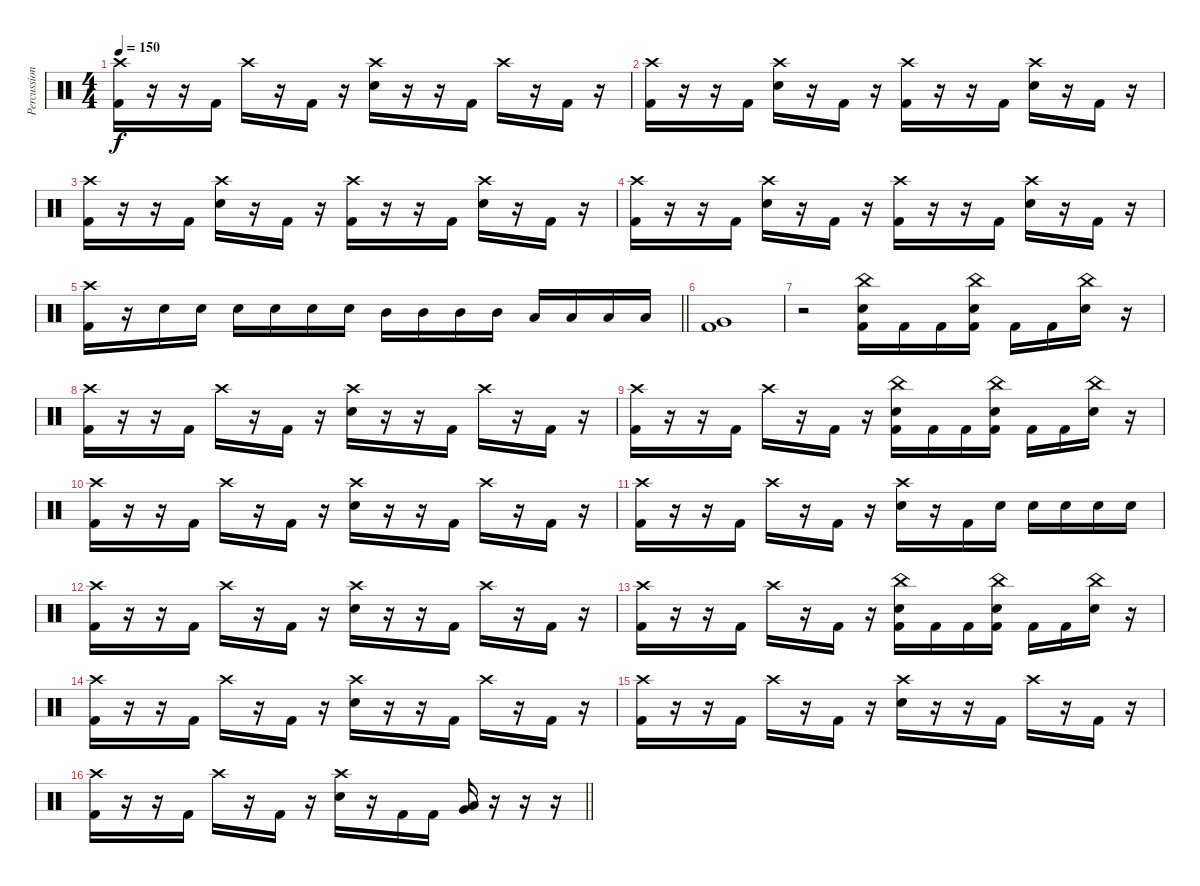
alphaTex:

\track ("Percussion" "Percussion") {instrument percussion}
\staff {score}
\articulation defaults
\ts (4 4)
\tempo 150
\clef neutral
\ks c
("Crash high (hit)" "Kick (hit) 2").16{dy f} r.16 r.16 "Kick (hit) 2".16 "Crash high (hit)".16 r.16 "Kick (hit) 2".16 r.16 ("Crash high (hit)" "Snare (hit) 2").16 r.16 r.16 "Kick (hit) 2".16 "Crash high (hit)".16 r.16 "Kick (hit) 2".16 r.16 |
("Crash high (hit)" "Kick (hit) 2").16 r.16 r.16 "Kick (hit) 2".16 ("Crash high (hit)" "Snare (hit) 2").16 r.16 "Kick (hit) 2".16 r.16 ("Crash high (hit)" "Kick (hit) 2").16 r.16 r.16 "Kick (hit) 2".16 ("Crash high (hit)" "Snare (hit) 2").16 r.16 "Kick (hit) 2".16 r.16 |
("Crash high (hit)" "Kick (hit) 2").16 r.16 r.16 "Kick (hit) 2".16 ("Crash high (hit)" "Snare (hit) 2").16 r.16 "Kick (hit) 2".16 r.16 ("Crash high (hit)" "Kick (hit) 2").16 r.16 r.16 "Kick (hit) 2".16 ("Crash high (hit)" "Snare (hit) 2").16 r.16 "Kick (hit) 2".16 r.16 |
("Crash high (hit)" "Kick (hit) 2").16 r.16 r.16 "Kick (hit) 2".16 ("Crash high (hit)" "Snare (hit) 2").16 r.16 "Kick (hit) 2".16 r.16 ("Crash high (hit)" "Kick (hit) 2").16 r.16 r.16 "Kick (hit) 2".16 ("Crash high (hit)" "Snare (hit) 2").16 r.16 "Kick (hit) 2".16 r.16 |
\barLineRight lightlight
("Crash high (hit)" "Kick (hit) 2").16 r.16 "Snare (hit) 2".16 "Snare (hit) 2".16 "Snare (hit) 2".16 "Snare (hit) 2".16 "Snare (hit) 2".16 "Snare (hit) 2".16 "Mid Tom (hit)".16 "Mid Tom (hit)".16 "Mid Tom (hit)".16 "Mid Tom (hit)".16 "Low Tom (hit)".16 "Low Tom (hit)".16 "Low Tom (hit)".16 "Low Tom (hit)".16 |
\section ("" "")
("Very Low Tom (hit)" "Kick (hit) 2").1 |
r.2 ("China (hit)" "Snare (hit) 2" "Kick (hit) 2").16 "Kick (hit) 2".16 "Kick (hit) 2".16 ("China (hit)" "Snare (hit) 2" "Kick (hit) 2").16 "Kick (hit) 2".16 "Kick (hit) 2".16 ("China (hit)" "Snare (hit) 2").16 r.16 |
("Crash high (hit)" "Kick (hit) 2").16 r.16 r.16 "Kick (hit) 2".16 "Crash high (hit)".16 r.16 "Kick (hit) 2".16 r.16 ("Crash high (hit)" "Snare (hit) 2").16 r.16 r.16 "Kick (hit) 2".16 "Crash high (hit)".16 r.16 "Kick (hit) 2".16 r.16 |
("Crash high (hit)" "Kick (hit) 2").16 r.16 r.16 "Kick (hit) 2".16 "Crash high (hit)".16 r.16 "Kick (hit) 2".16 r.16 ("China (hit)" "Snare (hit) 2" "Kick (hit) 2").16 "Kick (hit) 2".16 "Kick (hit) 2".16 ("China (hit)" "Snare (hit) 2" "Kick (hit) 2").16 "Kick (hit) 2".16 "Kick (hit) 2".16 ("China (hit)" "Snare (hit) 2").16 r.16 |
("Crash high (hit)" "Kick (hit) 2").16 r.16 r.16 "Kick (hit) 2".16 "Crash high (hit)".16 r.16 "Kick (hit) 2".16 r.16 ("Crash high (hit)" "Snare (hit) 2").16 r.16 r.16 "Kick (hit) 2".16 "Crash high (hit)".16 r.16 "Kick (hit) 2".16 r.16 |
("Crash high (hit)" "Kick (hit) 2").16 r.16 r.16 "Kick (hit) 2".16 "Crash high (hit)".16 r.16 "Kick (hit) 2".16 r.16 ("Crash high (hit)" "Snare (hit) 2").16 r.16 "Kick (hit) 2".16 "Snare (hit) 2".16 "Snare (hit) 2".16 "Snare (hit) 2".16 "Snare (hit) 2".16 "Snare (hit) 2".16 |
("Crash high (hit)" "Kick (hit) 2").16 r.16 r.16 "Kick (hit) 2".16 "Crash high (hit)".16 r.16 "Kick (hit) 2".16 r.16 ("Crash high (hit)" "Snare (hit) 2").16 r.16 r.16 "Kick (hit) 2".16 "Crash high (hit)".16 r.16 "Kick (hit) 2".16 r.16 |
("Crash high (hit)" "Kick (hit) 2").16 r.16 r.16 "Kick (hit) 2".16 "Crash high (hit)".16 r.16 "Kick (hit) 2".16 r.16 ("China (hit)" "Snare (hit) 2" "Kick (hit) 2").16 "Kick (hit) 2".16 "Kick (hit) 2".16 ("China (hit)" "Snare (hit) 2" "Kick (hit) 2").16 "Kick (hit) 2".16 "Kick (hit) 2".16 ("China (hit)" "Snare (hit) 2").16 r.16 |
("Crash high (hit)" "Kick (hit) 2").16 r.16 r.16 "Kick (hit) 2".16 "Crash high (hit)".16 r.16 "Kick (hit) 2".16 r.16 ("Crash high (hit)" "Snare (hit) 2").16 r.16 r.16 "Kick (hit) 2".16 "Crash high (hit)".16 r.16 "Kick (hit) 2".16 r.16 |
("Crash high (hit)" "Kick (hit) 2").16 r.16 r.16 "Kick (hit) 2".16 "Crash high (hit)".16 r.16 "Kick (hit) 2".16 r.16 ("Crash high (hit)" "Snare (hit) 2").16 r.16 r.16 "Kick (hit) 2".16 "Crash high (hit)".16 r.16 "Kick (hit) 2".16 r.16 |
\barLineRight lightlight
("Crash high (hit)" "Kick (hit) 2").16 r.16 r.16 "Kick (hit) 2".16 "Crash high (hit)".16 r.16 "Kick (hit) 2".16 r.16 ("Crash high (hit)" "Snare (hit) 2").16 r.16 "Kick (hit) 2".16 "Kick (hit) 2".16 ("Low Tom (hit)" "Very Low Tom (hit)").16 r.16 r.16 r.16
